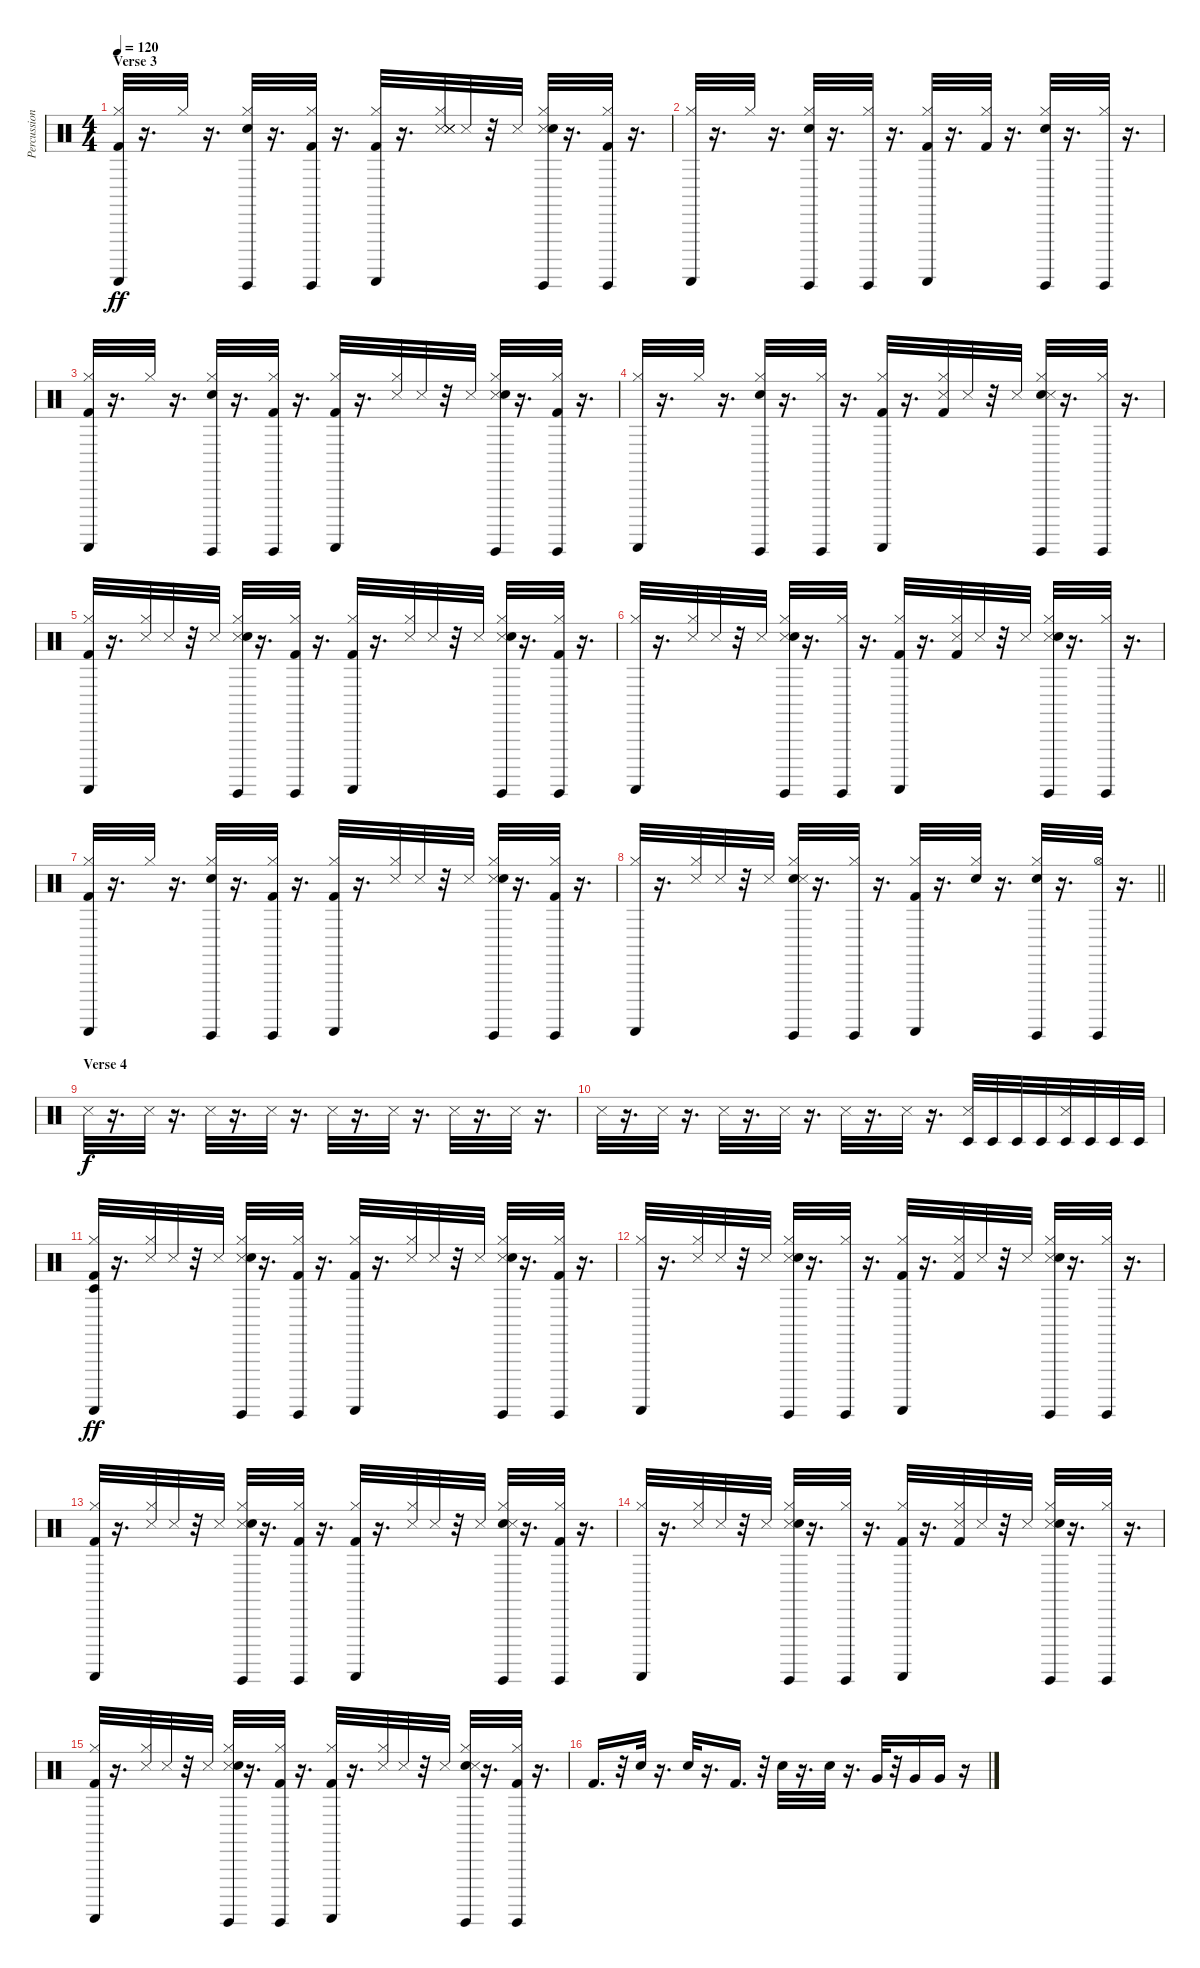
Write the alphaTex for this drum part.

\track ("Percussion" "Percussion") {instrument percussion}
\staff {score}
\articulation defaults
\ts (4 4)
\section ("" "Verse 3")
\tempo 120
\clef neutral
\ks c
("Guiro (scrap-return)" "Hi-Hat (closed)" "Kick (hit) 2").32{dy ff} r.16{d} "Hi-Hat (closed)".32 r.16{d} ("Guiro (hit)" "Hi-Hat (closed)" "Snare (hit) 2").32 r.16{d} ("Guiro (hit)" "Hi-Hat (closed)" "Kick (hit) 2").32 r.16{d} ("Guiro (scrap-return)" "Hi-Hat (closed)" "Kick (hit) 2").32 r.16{d} ("Hi-Hat (closed)" "Snare (side stick) 3" "Snare (side stick) 3" "Snare (side stick) 3" "Snare (side stick) 3").32 "Snare (side stick) 3".32 r.32 "Snare (side stick) 3".32 ("Snare (side stick) 3" "Guiro (hit)" "Hi-Hat (closed)" "Snare (hit) 2").32 r.16{d} ("Guiro (hit)" "Hi-Hat (closed)" "Kick (hit) 2").32 r.16{d} |
("Guiro (scrap-return)" "Hi-Hat (closed)").32 r.16{d} "Hi-Hat (closed)".32 r.16{d} ("Snare (hit) 2" "Guiro (hit)" "Hi-Hat (closed)").32 r.16{d} ("Guiro (hit)" "Hi-Hat (closed)").32 r.16{d} ("Guiro (scrap-return)" "Hi-Hat (closed)" "Kick (hit) 2").32 r.16{d} ("Hi-Hat (closed)" "Kick (hit) 2").32 r.16{d} ("Guiro (hit)" "Hi-Hat (closed)" "Snare (hit) 2").32 r.16{d} ("Guiro (hit)" "Hi-Hat (closed)").32 r.16{d} |
("Guiro (scrap-return)" "Hi-Hat (closed)" "Kick (hit) 2").32 r.16{d} "Hi-Hat (closed)".32 r.16{d} ("Guiro (hit)" "Hi-Hat (closed)" "Snare (hit) 2").32 r.16{d} ("Guiro (hit)" "Hi-Hat (closed)" "Kick (hit) 2").32 r.16{d} ("Guiro (scrap-return)" "Hi-Hat (closed)" "Kick (hit) 2").32 r.16{d} ("Hi-Hat (closed)" "Snare (side stick) 3").32 "Snare (side stick) 3".32 r.32 "Snare (side stick) 3".32 ("Guiro (hit)" "Snare (side stick) 3" "Hi-Hat (closed)" "Snare (hit) 2").32 r.16{d} ("Guiro (hit)" "Hi-Hat (closed)" "Kick (hit) 2").32 r.16{d} |
("Guiro (scrap-return)" "Hi-Hat (closed)").32 r.16{d} "Hi-Hat (closed)".32 r.16{d} ("Guiro (hit)" "Hi-Hat (closed)" "Snare (hit) 2").32 r.16{d} ("Guiro (hit)" "Hi-Hat (closed)").32 r.16{d} ("Guiro (scrap-return)" "Hi-Hat (closed)" "Kick (hit) 2").32 r.16{d} ("Hi-Hat (closed)" "Kick (hit) 2" "Snare (side stick) 3").32 "Snare (side stick) 3".32 r.32 "Snare (side stick) 3".32 ("Snare (hit) 2" "Guiro (hit)" "Hi-Hat (closed)" "Snare (side stick) 3").32 r.16{d} ("Guiro (hit)" "Hi-Hat (closed)").32 r.16{d} |
("Guiro (scrap-return)" "Hi-Hat (closed)" "Kick (hit) 2").32 r.16{d} ("Hi-Hat (closed)" "Snare (side stick) 3").32 "Snare (side stick) 3".32 r.32 "Snare (side stick) 3".32 ("Guiro (hit)" "Snare (side stick) 3" "Hi-Hat (closed)" "Snare (hit) 2").32 r.16{d} ("Guiro (hit)" "Hi-Hat (closed)" "Kick (hit) 2").32 r.16{d} ("Guiro (scrap-return)" "Hi-Hat (closed)" "Kick (hit) 2").32 r.16{d} ("Snare (side stick) 3" "Hi-Hat (closed)").32 "Snare (side stick) 3".32 r.32 "Snare (side stick) 3".32 ("Snare (side stick) 3" "Guiro (hit)" "Hi-Hat (closed)" "Snare (hit) 2").32 r.16{d} ("Guiro (hit)" "Hi-Hat (closed)" "Kick (hit) 2").32 r.16{d} |
("Guiro (scrap-return)" "Hi-Hat (closed)").32 r.16{d} ("Snare (side stick) 3" "Hi-Hat (closed)").32 "Snare (side stick) 3".32 r.32 "Snare (side stick) 3".32 ("Guiro (hit)" "Hi-Hat (closed)" "Snare (side stick) 3" "Snare (hit) 2").32 r.16{d} ("Guiro (hit)" "Hi-Hat (closed)").32 r.16{d} ("Kick (hit) 2" "Guiro (scrap-return)" "Hi-Hat (closed)").32 r.16{d} ("Snare (side stick) 3" "Hi-Hat (closed)" "Kick (hit) 2").32 "Snare (side stick) 3".32 r.32 "Snare (side stick) 3".32 ("Guiro (hit)" "Hi-Hat (closed)" "Snare (side stick) 3" "Snare (hit) 2").32 r.16{d} ("Guiro (hit)" "Hi-Hat (closed)").32 r.16{d} |
("Guiro (scrap-return)" "Hi-Hat (closed)" "Kick (hit) 2").32 r.16{d} "Hi-Hat (closed)".32 r.16{d} ("Guiro (hit)" "Hi-Hat (closed)" "Snare (hit) 2").32 r.16{d} ("Guiro (hit)" "Hi-Hat (closed)" "Kick (hit) 2").32 r.16{d} ("Guiro (scrap-return)" "Hi-Hat (closed)" "Kick (hit) 2").32 r.16{d} ("Hi-Hat (closed)" "Snare (side stick) 3").32 "Snare (side stick) 3".32 r.32 "Snare (side stick) 3".32 ("Guiro (hit)" "Hi-Hat (closed)" "Snare (side stick) 3" "Snare (hit) 2").32 r.16{d} ("Kick (hit) 2" "Guiro (hit)" "Hi-Hat (closed)").32 r.16{d} |
\barLineRight lightlight
("Guiro (scrap-return)" "Hi-Hat (closed)").32 r.16{d} ("Hi-Hat (closed)" "Snare (side stick) 3").32 "Snare (side stick) 3".32 r.32 "Snare (side stick) 3".32 ("Guiro (hit)" "Hi-Hat (closed)" "Snare (hit) 2" "Snare (side stick) 3").32 r.16{d} ("Guiro (hit)" "Hi-Hat (closed)").32 r.16{d} ("Hi-Hat (closed)" "Kick (hit) 2" "Guiro (scrap-return)").32 r.16{d} ("Electric Snare (hit)" "Hi-Hat (closed)").32 r.16{d} ("Hi-Hat (closed)" "Electric Snare (hit)" "Guiro (hit)").32 r.16{d} ("Hi-Hat (open)" "Guiro (hit)").32 r.16{d} |
\section ("" "Verse 4")
"Snare (side stick) 3".32{dy f} r.16{d} "Snare (side stick) 3".32 r.16{d} "Snare (side stick) 3".32 r.16{d} "Snare (side stick) 3".32 r.16{d} "Snare (side stick) 3".32 r.16{d} "Snare (side stick) 3".32 r.16{d} "Snare (side stick) 3".32 r.16{d} "Snare (side stick) 3".32 r.16{d} |
"Snare (side stick) 3".32 r.16{d} "Snare (side stick) 3".32 r.16{d} "Snare (side stick) 3".32 r.16{d} "Snare (side stick) 3".32 r.16{d} "Snare (side stick) 3".32 r.16{d} "Snare (side stick) 3".32 r.16{d} ("Timbale low (hit)" "Snare (side stick) 3").32 "Timbale low (hit)".32 "Timbale low (hit)".32 "Timbale low (hit)".32 ("Timbale low (hit)" "Snare (side stick) 3").32 "Timbale low (hit)".32 "Timbale low (hit)".32 "Timbale low (hit)".32 |
("Timbale low (hit)" "Guiro (scrap-return)" "Hi-Hat (closed)" "Kick (hit) 2").32{dy ff} r.16{d} ("Hi-Hat (closed)" "Snare (side stick) 3").32 "Snare (side stick) 3".32 r.32 "Snare (side stick) 3".32 ("Guiro (hit)" "Snare (side stick) 3" "Hi-Hat (closed)" "Snare (hit) 2").32 r.16{d} ("Guiro (hit)" "Hi-Hat (closed)" "Kick (hit) 2").32 r.16{d} ("Guiro (scrap-return)" "Hi-Hat (closed)" "Kick (hit) 2").32 r.16{d} ("Snare (side stick) 3" "Hi-Hat (closed)").32 "Snare (side stick) 3".32 r.32 "Snare (side stick) 3".32 ("Snare (side stick) 3" "Guiro (hit)" "Hi-Hat (closed)" "Snare (hit) 2").32 r.16{d} ("Guiro (hit)" "Hi-Hat (closed)" "Kick (hit) 2").32 r.16{d} |
("Guiro (scrap-return)" "Hi-Hat (closed)").32 r.16{d} ("Snare (side stick) 3" "Hi-Hat (closed)").32 "Snare (side stick) 3".32 r.32 "Snare (side stick) 3".32 ("Guiro (hit)" "Hi-Hat (closed)" "Snare (side stick) 3" "Snare (hit) 2").32 r.16{d} ("Guiro (hit)" "Hi-Hat (closed)").32 r.16{d} ("Kick (hit) 2" "Guiro (scrap-return)" "Hi-Hat (closed)").32 r.16{d} ("Snare (side stick) 3" "Hi-Hat (closed)" "Kick (hit) 2").32 "Snare (side stick) 3".32 r.32 "Snare (side stick) 3".32 ("Guiro (hit)" "Hi-Hat (closed)" "Snare (side stick) 3" "Snare (hit) 2").32 r.16{d} ("Guiro (hit)" "Hi-Hat (closed)").32 r.16{d} |
("Guiro (scrap-return)" "Hi-Hat (closed)" "Kick (hit) 2").32 r.16{d} ("Hi-Hat (closed)" "Snare (side stick) 3").32 "Snare (side stick) 3".32 r.32 "Snare (side stick) 3".32 ("Guiro (hit)" "Hi-Hat (closed)" "Snare (side stick) 3" "Snare (hit) 2").32 r.16{d} ("Guiro (hit)" "Hi-Hat (closed)" "Kick (hit) 2").32 r.16{d} ("Guiro (scrap-return)" "Hi-Hat (closed)" "Kick (hit) 2").32 r.16{d} ("Snare (side stick) 3" "Hi-Hat (closed)").32 "Snare (side stick) 3".32 r.32 "Snare (side stick) 3".32 ("Snare (hit) 2" "Hi-Hat (closed)" "Guiro (hit)" "Snare (side stick) 3").32 r.16{d} ("Kick (hit) 2" "Guiro (hit)" "Hi-Hat (closed)").32 r.16{d} |
("Hi-Hat (closed)" "Guiro (scrap-return)").32 r.16{d} ("Hi-Hat (closed)" "Snare (side stick) 3").32 "Snare (side stick) 3".32 r.32 "Snare (side stick) 3".32 ("Hi-Hat (closed)" "Guiro (hit)" "Snare (side stick) 3" "Snare (hit) 2").32 r.16{d} ("Hi-Hat (closed)" "Guiro (hit)").32 r.16{d} ("Kick (hit) 2" "Guiro (scrap-return)" "Hi-Hat (closed)").32 r.16{d} ("Hi-Hat (closed)" "Snare (side stick) 3" "Kick (hit) 2").32 "Snare (side stick) 3".32 r.32 "Snare (side stick) 3".32 ("Hi-Hat (closed)" "Guiro (hit)" "Snare (side stick) 3" "Snare (hit) 2").32 r.16{d} ("Hi-Hat (closed)" "Guiro (hit)").32 r.16{d} |
("Guiro (scrap-return)" "Hi-Hat (closed)" "Kick (hit) 2").32 r.16{d} ("Hi-Hat (closed)" "Snare (side stick) 3").32 "Snare (side stick) 3".32 r.32 "Snare (side stick) 3".32 ("Guiro (hit)" "Hi-Hat (closed)" "Snare (side stick) 3" "Snare (hit) 2").32 r.16{d} ("Guiro (hit)" "Hi-Hat (closed)" "Kick (hit) 2").32 r.16{d} ("Guiro (scrap-return)" "Hi-Hat (closed)" "Kick (hit) 2").32 r.16{d} ("Snare (side stick) 3" "Hi-Hat (closed)").32 "Snare (side stick) 3".32 r.32 "Snare (side stick) 3".32 ("Snare (hit) 2" "Hi-Hat (closed)" "Guiro (hit)" "Snare (side stick) 3").32 r.16{d} ("Kick (hit) 2" "Guiro (hit)" "Hi-Hat (closed)").32 r.16{d} |
"Kick (hit) 2".16{d} r.32 "Electric Snare (hit)".32 r.16{d} "Electric Snare (hit)".32 r.16{d} "Kick (hit) 2".16{d} r.32 "Electric Snare (hit)".32 r.16{d} "Electric Snare (hit)".32 r.16{d} "Very Low Tom (hit)".32 r.32 "Very Low Tom (hit)".16 "Very Low Tom (hit)".16 r.16
